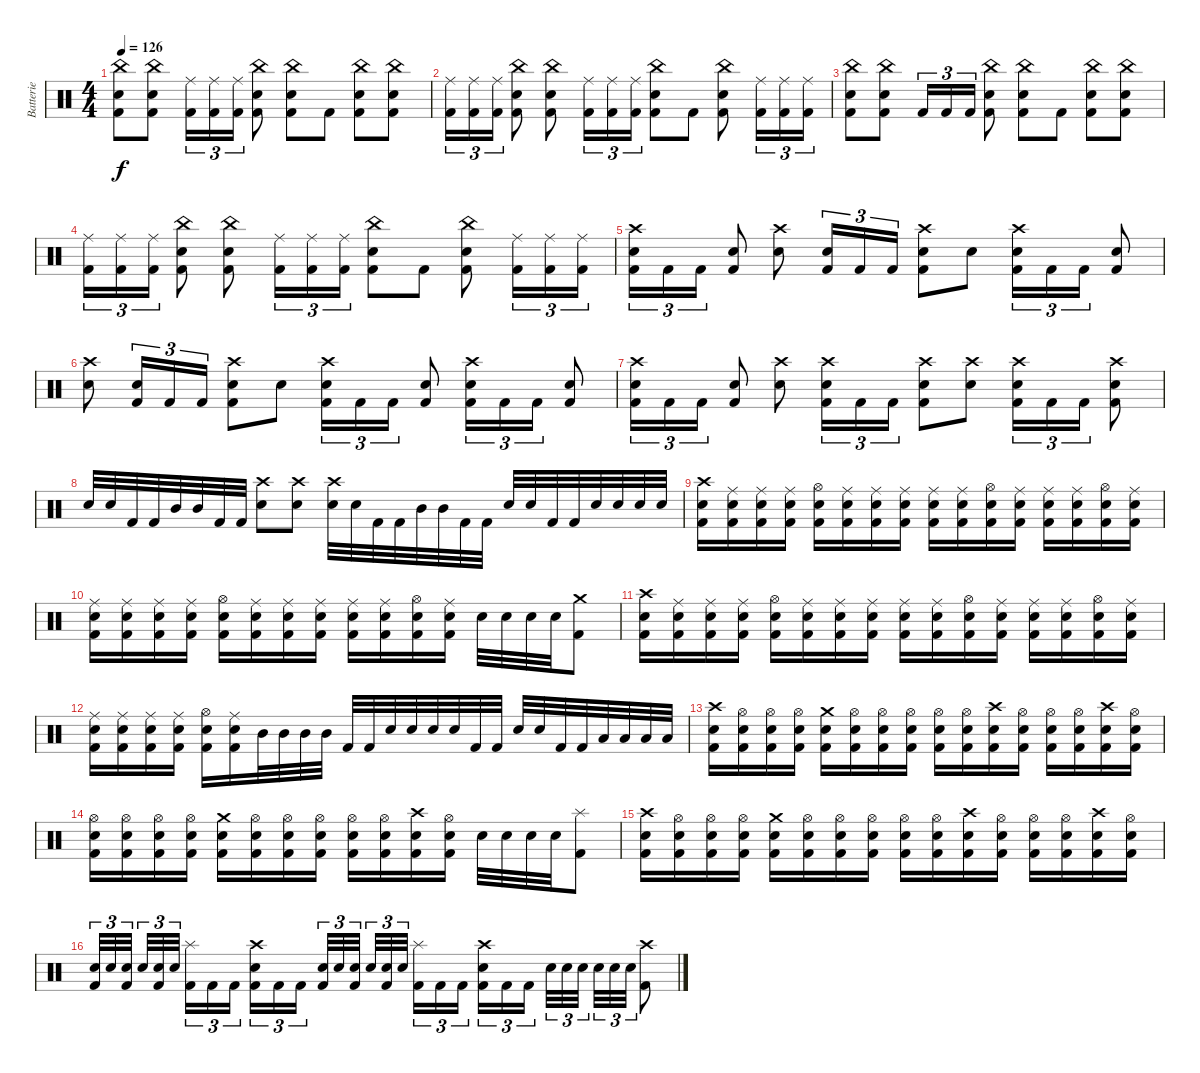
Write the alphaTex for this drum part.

\track ("Batterie" "Batterie") {instrument percussion}
\staff {score}
\articulation defaults
\ts (4 4)
\tempo 126
\clef neutral
\ks c
("China (hit)" "Electric Snare (hit)" "Kick (hit) 2").8{dy f} ("China (hit)" "Electric Snare (hit)" "Kick (hit) 2").8 ("Ride (middle)" "Kick (hit) 2").16{tu (3 2)} ("Ride (middle)" "Kick (hit) 2").16{tu (3 2)} ("Ride (middle)" "Kick (hit) 2").16{tu (3 2)} ("China (hit)" "Electric Snare (hit)" "Kick (hit) 2").8 ("China (hit)" "Electric Snare (hit)" "Kick (hit) 2").8 "Kick (hit) 2".8 ("China (hit)" "Electric Snare (hit)" "Kick (hit) 2").8 ("China (hit)" "Electric Snare (hit)" "Kick (hit) 2").8 |
("Ride (middle)" "Kick (hit) 2").16{tu (3 2)} ("Ride (middle)" "Kick (hit) 2").16{tu (3 2)} ("Ride (middle)" "Kick (hit) 2").16{tu (3 2)} ("China (hit)" "Electric Snare (hit)" "Kick (hit) 2").8 ("China (hit)" "Electric Snare (hit)" "Kick (hit) 2").8 ("Ride (middle)" "Kick (hit) 2").16{tu (3 2)} ("Ride (middle)" "Kick (hit) 2").16{tu (3 2)} ("Ride (middle)" "Kick (hit) 2").16{tu (3 2)} ("China (hit)" "Kick (hit) 2" "Electric Snare (hit)").8 "Kick (hit) 2".8 ("China (hit)" "Electric Snare (hit)" "Kick (hit) 2").8 ("Ride (middle)" "Kick (hit) 2").16{tu (3 2)} ("Ride (middle)" "Kick (hit) 2").16{tu (3 2)} ("Ride (middle)" "Kick (hit) 2").16{tu (3 2)} |
("China (hit)" "Electric Snare (hit)" "Kick (hit) 2").8 ("China (hit)" "Electric Snare (hit)" "Kick (hit) 2").8 "Kick (hit) 2".16{tu (3 2)} "Kick (hit) 2".16{tu (3 2)} "Kick (hit) 2".16{tu (3 2)} ("China (hit)" "Electric Snare (hit)" "Kick (hit) 2").8 ("China (hit)" "Electric Snare (hit)" "Kick (hit) 2").8 "Kick (hit) 2".8 ("China (hit)" "Electric Snare (hit)" "Kick (hit) 2").8 ("China (hit)" "Electric Snare (hit)" "Kick (hit) 2").8 |
("Ride (middle)" "Kick (hit) 2").16{tu (3 2)} ("Ride (middle)" "Kick (hit) 2").16{tu (3 2)} ("Ride (middle)" "Kick (hit) 2").16{tu (3 2)} ("China (hit)" "Electric Snare (hit)" "Kick (hit) 2").8 ("China (hit)" "Electric Snare (hit)" "Kick (hit) 2").8 ("Ride (middle)" "Kick (hit) 2").16{tu (3 2)} ("Ride (middle)" "Kick (hit) 2").16{tu (3 2)} ("Ride (middle)" "Kick (hit) 2").16{tu (3 2)} ("China (hit)" "Kick (hit) 2" "Electric Snare (hit)").8 "Kick (hit) 2".8 ("China (hit)" "Electric Snare (hit)" "Kick (hit) 2").8 ("Ride (middle)" "Kick (hit) 2").16{tu (3 2)} ("Ride (middle)" "Kick (hit) 2").16{tu (3 2)} ("Ride (middle)" "Kick (hit) 2").16{tu (3 2)} |
("Crash high (hit)" "Electric Snare (hit)" "Kick (hit) 2").16{tu (3 2)} "Kick (hit) 2".16{tu (3 2)} "Kick (hit) 2".16{tu (3 2)} ("Electric Snare (hit)" "Kick (hit) 2").8 ("Crash high (hit)" "Electric Snare (hit)").8 ("Electric Snare (hit)" "Kick (hit) 2").16{tu (3 2)} "Kick (hit) 2".16{tu (3 2)} "Kick (hit) 2".16{tu (3 2)} ("Crash high (hit)" "Electric Snare (hit)" "Kick (hit) 2").8 "Electric Snare (hit)".8 ("Crash high (hit)" "Kick (hit) 2" "Electric Snare (hit)").16{tu (3 2)} "Kick (hit) 2".16{tu (3 2)} "Kick (hit) 2".16{tu (3 2)} ("Electric Snare (hit)" "Kick (hit) 2").8 |
("Crash high (hit)" "Electric Snare (hit)").8 ("Electric Snare (hit)" "Kick (hit) 2").16{tu (3 2)} "Kick (hit) 2".16{tu (3 2)} "Kick (hit) 2".16{tu (3 2)} ("Crash high (hit)" "Electric Snare (hit)" "Kick (hit) 2").8 "Electric Snare (hit)".8 ("Crash high (hit)" "Electric Snare (hit)" "Kick (hit) 2").16{tu (3 2)} "Kick (hit) 2".16{tu (3 2)} "Kick (hit) 2".16{tu (3 2)} ("Electric Snare (hit)" "Kick (hit) 2").8 ("Crash high (hit)" "Electric Snare (hit)" "Kick (hit) 2").16{tu (3 2)} "Kick (hit) 2".16{tu (3 2)} "Kick (hit) 2".16{tu (3 2)} ("Electric Snare (hit)" "Kick (hit) 2").8 |
("Crash high (hit)" "Electric Snare (hit)" "Kick (hit) 2").16{tu (3 2)} "Kick (hit) 2".16{tu (3 2)} "Kick (hit) 2".16{tu (3 2)} ("Electric Snare (hit)" "Kick (hit) 2").8 ("Crash high (hit)" "Electric Snare (hit)").8 ("Crash high (hit)" "Electric Snare (hit)" "Kick (hit) 2").16{tu (3 2)} "Kick (hit) 2".16{tu (3 2)} "Kick (hit) 2".16{tu (3 2)} ("Crash high (hit)" "Electric Snare (hit)" "Kick (hit) 2").8 ("Crash high (hit)" "Electric Snare (hit)").8 ("Crash high (hit)" "Kick (hit) 2" "Electric Snare (hit)").16{tu (3 2)} "Kick (hit) 2".16{tu (3 2)} "Kick (hit) 2".16{tu (3 2)} ("Crash high (hit)" "Electric Snare (hit)" "Kick (hit) 2").8 |
"Electric Snare (hit)".32 "Electric Snare (hit)".32 "Kick (hit) 2".32 "Kick (hit) 2".32 "Mid Tom (hit)".32 "Mid Tom (hit)".32 "Kick (hit) 2".32 "Kick (hit) 2".32 ("Crash high (hit)" "Electric Snare (hit)").8 ("Crash high (hit)" "Electric Snare (hit)").8 ("Crash high (hit)" "Electric Snare (hit)").32 "Electric Snare (hit)".32 "Kick (hit) 2".32 "Kick (hit) 2".32 "Mid Tom (hit)".32 "Mid Tom (hit)".32 "Kick (hit) 2".32 "Kick (hit) 2".32 "Electric Snare (hit)".32 "Electric Snare (hit)".32 "Kick (hit) 2".32 "Kick (hit) 2".32 "Electric Snare (hit)".32 "Electric Snare (hit)".32 "Electric Snare (hit)".32 "Electric Snare (hit)".32 |
("Kick (hit) 2" "Crash high (hit)" "Electric Snare (hit)").16 ("Ride (middle)" "Electric Snare (hit)" "Kick (hit) 2").16 ("Ride (middle)" "Electric Snare (hit)" "Kick (hit) 2").16 ("Ride (middle)" "Electric Snare (hit)" "Kick (hit) 2").16 ("Hi-Hat (open)" "Electric Snare (hit)" "Kick (hit) 2").16 ("Ride (middle)" "Electric Snare (hit)" "Kick (hit) 2").16 ("Ride (middle)" "Electric Snare (hit)" "Kick (hit) 2").16 ("Ride (middle)" "Electric Snare (hit)" "Kick (hit) 2").16 ("Ride (middle)" "Electric Snare (hit)" "Kick (hit) 2").16 ("Ride (middle)" "Electric Snare (hit)" "Kick (hit) 2").16 ("Hi-Hat (open)" "Electric Snare (hit)" "Kick (hit) 2").16 ("Ride (middle)" "Electric Snare (hit)" "Kick (hit) 2").16 ("Ride (middle)" "Electric Snare (hit)" "Kick (hit) 2").16 ("Ride (middle)" "Electric Snare (hit)" "Kick (hit) 2").16 ("Hi-Hat (open)" "Electric Snare (hit)" "Kick (hit) 2").16 ("Ride (middle)" "Electric Snare (hit)" "Kick (hit) 2").16 |
("Ride (middle)" "Electric Snare (hit)" "Kick (hit) 2").16 ("Ride (middle)" "Electric Snare (hit)" "Kick (hit) 2").16 ("Ride (middle)" "Electric Snare (hit)" "Kick (hit) 2").16 ("Ride (middle)" "Electric Snare (hit)" "Kick (hit) 2").16 ("Hi-Hat (open)" "Electric Snare (hit)" "Kick (hit) 2").16 ("Ride (middle)" "Electric Snare (hit)" "Kick (hit) 2").16 ("Ride (middle)" "Electric Snare (hit)" "Kick (hit) 2").16 ("Ride (middle)" "Electric Snare (hit)" "Kick (hit) 2").16 ("Ride (middle)" "Electric Snare (hit)" "Kick (hit) 2").16 ("Ride (middle)" "Electric Snare (hit)" "Kick (hit) 2").16 ("Hi-Hat (open)" "Electric Snare (hit)" "Kick (hit) 2").16 ("Ride (middle)" "Electric Snare (hit)" "Kick (hit) 2").16 "Electric Snare (hit)".32 "Electric Snare (hit)".32 "Electric Snare (hit)".32 "Electric Snare (hit)".32 ("Crash medium (hit)" "Kick (hit) 2").8 |
("Kick (hit) 2" "Crash high (hit)" "Electric Snare (hit)").16 ("Ride (middle)" "Electric Snare (hit)" "Kick (hit) 2").16 ("Ride (middle)" "Electric Snare (hit)" "Kick (hit) 2").16 ("Ride (middle)" "Electric Snare (hit)" "Kick (hit) 2").16 ("Hi-Hat (open)" "Electric Snare (hit)" "Kick (hit) 2").16 ("Ride (middle)" "Electric Snare (hit)" "Kick (hit) 2").16 ("Ride (middle)" "Electric Snare (hit)" "Kick (hit) 2").16 ("Ride (middle)" "Electric Snare (hit)" "Kick (hit) 2").16 ("Ride (middle)" "Electric Snare (hit)" "Kick (hit) 2").16 ("Ride (middle)" "Electric Snare (hit)" "Kick (hit) 2").16 ("Hi-Hat (open)" "Electric Snare (hit)" "Kick (hit) 2").16 ("Ride (middle)" "Electric Snare (hit)" "Kick (hit) 2").16 ("Ride (middle)" "Electric Snare (hit)" "Kick (hit) 2").16 ("Ride (middle)" "Electric Snare (hit)" "Kick (hit) 2").16 ("Hi-Hat (open)" "Electric Snare (hit)" "Kick (hit) 2").16 ("Ride (middle)" "Electric Snare (hit)" "Kick (hit) 2").16 |
("Ride (middle)" "Electric Snare (hit)" "Kick (hit) 2").16 ("Ride (middle)" "Electric Snare (hit)" "Kick (hit) 2").16 ("Ride (middle)" "Electric Snare (hit)" "Kick (hit) 2").16 ("Ride (middle)" "Electric Snare (hit)" "Kick (hit) 2").16 ("Hi-Hat (open)" "Electric Snare (hit)" "Kick (hit) 2").16 ("Ride (middle)" "Electric Snare (hit)" "Kick (hit) 2").16 "Mid Tom (hit)".32 "Mid Tom (hit)".32 "Mid Tom (hit)".32 "Mid Tom (hit)".32 "Kick (hit) 2".32 "Kick (hit) 2".32 "Electric Snare (hit)".32 "Electric Snare (hit)".32 "Electric Snare (hit)".32 "Electric Snare (hit)".32 "Kick (hit) 2".32 "Kick (hit) 2".32 "Electric Snare (hit)".32 "Electric Snare (hit)".32 "Kick (hit) 2".32 "Kick (hit) 2".32 "Low Tom (hit)".32 "Low Tom (hit)".32 "Low Tom (hit)".32 "Low Tom (hit)".32 |
("Crash high (hit)" "Kick (hit) 2" "Electric Snare (hit)").16 ("Hi-Hat (open)" "Electric Snare (hit)" "Kick (hit) 2").16 ("Hi-Hat (open)" "Electric Snare (hit)" "Kick (hit) 2").16 ("Hi-Hat (open)" "Electric Snare (hit)" "Kick (hit) 2").16 ("Crash medium (hit)" "Electric Snare (hit)" "Kick (hit) 2").16 ("Hi-Hat (open)" "Electric Snare (hit)" "Kick (hit) 2").16 ("Hi-Hat (open)" "Electric Snare (hit)" "Kick (hit) 2").16 ("Hi-Hat (open)" "Electric Snare (hit)" "Kick (hit) 2").16 ("Hi-Hat (open)" "Electric Snare (hit)" "Kick (hit) 2").16 ("Hi-Hat (open)" "Electric Snare (hit)" "Kick (hit) 2").16 ("Crash high (hit)" "Electric Snare (hit)" "Kick (hit) 2").16 ("Hi-Hat (open)" "Electric Snare (hit)" "Kick (hit) 2").16 ("Hi-Hat (open)" "Electric Snare (hit)" "Kick (hit) 2").16 ("Hi-Hat (open)" "Electric Snare (hit)" "Kick (hit) 2").16 ("Crash high (hit)" "Electric Snare (hit)" "Kick (hit) 2").16 ("Hi-Hat (open)" "Electric Snare (hit)" "Kick (hit) 2").16 |
("Hi-Hat (open)" "Kick (hit) 2" "Electric Snare (hit)").16 ("Hi-Hat (open)" "Electric Snare (hit)" "Kick (hit) 2").16 ("Hi-Hat (open)" "Electric Snare (hit)" "Kick (hit) 2").16 ("Hi-Hat (open)" "Electric Snare (hit)" "Kick (hit) 2").16 ("Crash medium (hit)" "Electric Snare (hit)" "Kick (hit) 2").16 ("Hi-Hat (open)" "Electric Snare (hit)" "Kick (hit) 2").16 ("Hi-Hat (open)" "Electric Snare (hit)" "Kick (hit) 2").16 ("Hi-Hat (open)" "Electric Snare (hit)" "Kick (hit) 2").16 ("Hi-Hat (open)" "Electric Snare (hit)" "Kick (hit) 2").16 ("Hi-Hat (open)" "Electric Snare (hit)" "Kick (hit) 2").16 ("Crash high (hit)" "Electric Snare (hit)" "Kick (hit) 2").16 ("Hi-Hat (open)" "Electric Snare (hit)" "Kick (hit) 2").16 "Electric Snare (hit)".32 "Electric Snare (hit)".32 "Electric Snare (hit)".32 "Electric Snare (hit)".32 ("Splash (hit)" "Kick (hit) 2").8 |
("Crash high (hit)" "Kick (hit) 2" "Electric Snare (hit)").16 ("Hi-Hat (open)" "Electric Snare (hit)" "Kick (hit) 2").16 ("Hi-Hat (open)" "Electric Snare (hit)" "Kick (hit) 2").16 ("Hi-Hat (open)" "Electric Snare (hit)" "Kick (hit) 2").16 ("Crash medium (hit)" "Electric Snare (hit)" "Kick (hit) 2").16 ("Hi-Hat (open)" "Electric Snare (hit)" "Kick (hit) 2").16 ("Hi-Hat (open)" "Electric Snare (hit)" "Kick (hit) 2").16 ("Hi-Hat (open)" "Electric Snare (hit)" "Kick (hit) 2").16 ("Hi-Hat (open)" "Electric Snare (hit)" "Kick (hit) 2").16 ("Hi-Hat (open)" "Electric Snare (hit)" "Kick (hit) 2").16 ("Crash high (hit)" "Electric Snare (hit)" "Kick (hit) 2").16 ("Hi-Hat (open)" "Electric Snare (hit)" "Kick (hit) 2").16 ("Hi-Hat (open)" "Electric Snare (hit)" "Kick (hit) 2").16 ("Hi-Hat (open)" "Electric Snare (hit)" "Kick (hit) 2").16 ("Crash high (hit)" "Electric Snare (hit)" "Kick (hit) 2").16 ("Hi-Hat (open)" "Electric Snare (hit)" "Kick (hit) 2").16 |
("Electric Snare (hit)" "Kick (hit) 2").32{tu (3 2)} "Electric Snare (hit)".32{tu (3 2)} ("Electric Snare (hit)" "Kick (hit) 2").32{tu (3 2)} "Electric Snare (hit)".32{tu (3 2)} ("Electric Snare (hit)" "Kick (hit) 2").32{tu (3 2)} "Electric Snare (hit)".32{tu (3 2)} ("Splash (hit)" "Kick (hit) 2").16{tu (3 2)} "Kick (hit) 2".16{tu (3 2)} "Kick (hit) 2".16{tu (3 2)} ("Crash high (hit)" "Electric Snare (hit)" "Kick (hit) 2").16{tu (3 2)} "Kick (hit) 2".16{tu (3 2)} "Kick (hit) 2".16{tu (3 2)} ("Electric Snare (hit)" "Kick (hit) 2").32{tu (3 2)} "Electric Snare (hit)".32{tu (3 2)} ("Electric Snare (hit)" "Kick (hit) 2").32{tu (3 2)} "Electric Snare (hit)".32{tu (3 2)} ("Electric Snare (hit)" "Kick (hit) 2").32{tu (3 2)} "Electric Snare (hit)".32{tu (3 2)} ("Splash (hit)" "Kick (hit) 2").16{tu (3 2)} "Kick (hit) 2".16{tu (3 2)} "Kick (hit) 2".16{tu (3 2)} ("Crash high (hit)" "Electric Snare (hit)" "Kick (hit) 2").16{tu (3 2)} "Kick (hit) 2".16{tu (3 2)} "Kick (hit) 2".16{tu (3 2)} "Electric Snare (hit)".32{tu (3 2)} "Electric Snare (hit)".32{tu (3 2)} "Electric Snare (hit)".32{tu (3 2)} "Electric Snare (hit)".32{tu (3 2)} "Electric Snare (hit)".32{tu (3 2)} "Electric Snare (hit)".32{tu (3 2)} ("Crash high (hit)" "Kick (hit) 2").8
